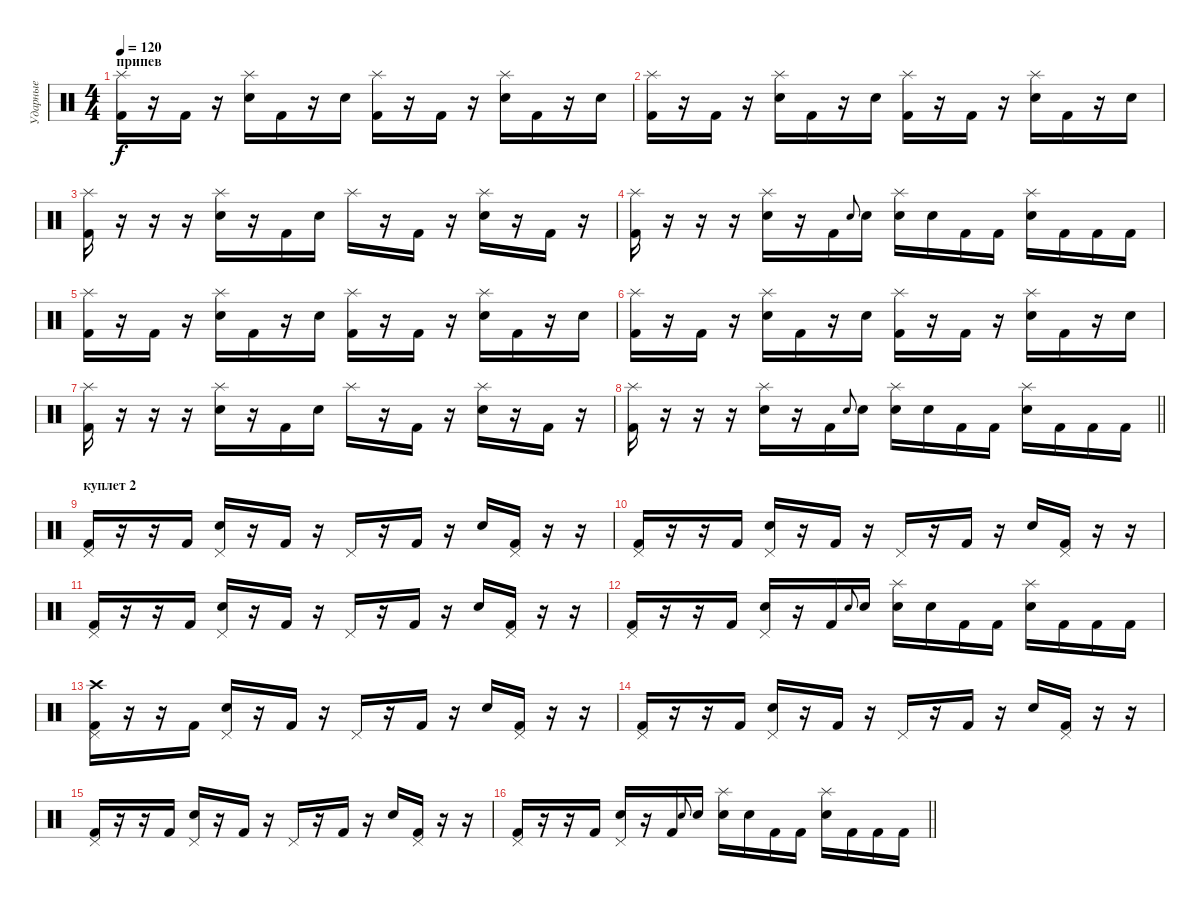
\track ("Ударные" "Ударные") {instrument percussion}
\staff {score}
\articulation defaults
\ts (4 4)
\section ("" "припев")
\tempo 120
\clef neutral
\ks c
("Splash (hit)" "Kick (hit) 2").16{dy f} r.16 "Kick (hit) 2".16 r.16 ("Splash (hit)" "Electric Snare (hit)").16 "Kick (hit) 2".16 r.16 "Electric Snare (hit)".16 ("Splash (hit)" "Kick (hit) 2").16 r.16 "Kick (hit) 2".16 r.16 ("Splash (hit)" "Electric Snare (hit)").16 "Kick (hit) 2".16 r.16 "Electric Snare (hit)".16 |
("Splash (hit)" "Kick (hit) 2").16 r.16 "Kick (hit) 2".16 r.16 ("Splash (hit)" "Electric Snare (hit)").16 "Kick (hit) 2".16 r.16 "Electric Snare (hit)".16 ("Splash (hit)" "Kick (hit) 2").16 r.16 "Kick (hit) 2".16 r.16 ("Splash (hit)" "Electric Snare (hit)").16 "Kick (hit) 2".16 r.16 "Electric Snare (hit)".16 |
("Splash (hit)" "Kick (hit) 2").16 r.16 r.16 r.16 ("Splash (hit)" "Electric Snare (hit)").16 r.16 "Kick (hit) 2".16 "Electric Snare (hit)".16 "Splash (hit)".16 r.16 "Kick (hit) 2".16 r.16 ("Splash (hit)" "Electric Snare (hit)").16 r.16 "Kick (hit) 2".16 r.16 |
("Splash (hit)" "Kick (hit) 2").16 r.16 r.16 r.16 ("Splash (hit)" "Electric Snare (hit)").16 r.16 "Kick (hit) 2".16 "Electric Snare (hit)".8{gr onbeat} "Electric Snare (hit)".16 ("Splash (hit)" "Electric Snare (hit)").16 "Electric Snare (hit)".16 "Kick (hit) 2".16 "Kick (hit) 2".16 ("Splash (hit)" "Electric Snare (hit)").16 "Kick (hit) 2".16 "Kick (hit) 2".16 "Kick (hit) 2".16 |
("Splash (hit)" "Kick (hit) 2").16 r.16 "Kick (hit) 2".16 r.16 ("Splash (hit)" "Electric Snare (hit)").16 "Kick (hit) 2".16 r.16 "Electric Snare (hit)".16 ("Splash (hit)" "Kick (hit) 2").16 r.16 "Kick (hit) 2".16 r.16 ("Splash (hit)" "Electric Snare (hit)").16 "Kick (hit) 2".16 r.16 "Electric Snare (hit)".16 |
("Splash (hit)" "Kick (hit) 2").16 r.16 "Kick (hit) 2".16 r.16 ("Splash (hit)" "Electric Snare (hit)").16 "Kick (hit) 2".16 r.16 "Electric Snare (hit)".16 ("Splash (hit)" "Kick (hit) 2").16 r.16 "Kick (hit) 2".16 r.16 ("Splash (hit)" "Electric Snare (hit)").16 "Kick (hit) 2".16 r.16 "Electric Snare (hit)".16 |
("Splash (hit)" "Kick (hit) 2").16 r.16 r.16 r.16 ("Splash (hit)" "Electric Snare (hit)").16 r.16 "Kick (hit) 2".16 "Electric Snare (hit)".16 "Splash (hit)".16 r.16 "Kick (hit) 2".16 r.16 ("Splash (hit)" "Electric Snare (hit)").16 r.16 "Kick (hit) 2".16 r.16 |
\barLineRight lightlight
("Splash (hit)" "Kick (hit) 2").16 r.16 r.16 r.16 ("Splash (hit)" "Electric Snare (hit)").16 r.16 "Kick (hit) 2".16 "Electric Snare (hit)".8{gr onbeat} "Electric Snare (hit)".16 ("Splash (hit)" "Electric Snare (hit)").16 "Electric Snare (hit)".16 "Kick (hit) 2".16 "Kick (hit) 2".16 ("Splash (hit)" "Electric Snare (hit)").16 "Kick (hit) 2".16 "Kick (hit) 2".16 "Kick (hit) 2".16 |
\section ("" "куплет 2")
("Pedal Hi-Hat (hit)" "Kick (hit) 2").16 r.16 r.16 "Kick (hit) 2".16 ("Pedal Hi-Hat (hit)" "Electric Snare (hit)").16 r.16 "Kick (hit) 2".16 r.16 "Pedal Hi-Hat (hit)".16 r.16 "Kick (hit) 2".16 r.16 "Electric Snare (hit)".16 ("Pedal Hi-Hat (hit)" "Kick (hit) 2").16 r.16 r.16 |
("Pedal Hi-Hat (hit)" "Kick (hit) 2").16 r.16 r.16 "Kick (hit) 2".16 ("Pedal Hi-Hat (hit)" "Electric Snare (hit)").16 r.16 "Kick (hit) 2".16 r.16 "Pedal Hi-Hat (hit)".16 r.16 "Kick (hit) 2".16 r.16 "Electric Snare (hit)".16 ("Pedal Hi-Hat (hit)" "Kick (hit) 2").16 r.16 r.16 |
("Pedal Hi-Hat (hit)" "Kick (hit) 2").16 r.16 r.16 "Kick (hit) 2".16 ("Pedal Hi-Hat (hit)" "Electric Snare (hit)").16 r.16 "Kick (hit) 2".16 r.16 "Pedal Hi-Hat (hit)".16 r.16 "Kick (hit) 2".16 r.16 "Electric Snare (hit)".16 ("Pedal Hi-Hat (hit)" "Kick (hit) 2").16 r.16 r.16 |
("Pedal Hi-Hat (hit)" "Kick (hit) 2").16 r.16 r.16 "Kick (hit) 2".16 ("Pedal Hi-Hat (hit)" "Electric Snare (hit)").16 r.16 "Kick (hit) 2".16 "Electric Snare (hit)".8{gr onbeat} "Electric Snare (hit)".16 ("Splash (hit)" "Electric Snare (hit)").16 "Electric Snare (hit)".16 "Kick (hit) 2".16 "Kick (hit) 2".16 ("Splash (hit)" "Electric Snare (hit)").16 "Kick (hit) 2".16 "Kick (hit) 2".16 "Kick (hit) 2".16 |
("Crash high (hit)" "Pedal Hi-Hat (hit)" "Kick (hit) 2").16 r.16 r.16 "Kick (hit) 2".16 ("Pedal Hi-Hat (hit)" "Electric Snare (hit)").16 r.16 "Kick (hit) 2".16 r.16 "Pedal Hi-Hat (hit)".16 r.16 "Kick (hit) 2".16 r.16 "Electric Snare (hit)".16 ("Pedal Hi-Hat (hit)" "Kick (hit) 2").16 r.16 r.16 |
("Pedal Hi-Hat (hit)" "Kick (hit) 2").16 r.16 r.16 "Kick (hit) 2".16 ("Pedal Hi-Hat (hit)" "Electric Snare (hit)").16 r.16 "Kick (hit) 2".16 r.16 "Pedal Hi-Hat (hit)".16 r.16 "Kick (hit) 2".16 r.16 "Electric Snare (hit)".16 ("Pedal Hi-Hat (hit)" "Kick (hit) 2").16 r.16 r.16 |
("Pedal Hi-Hat (hit)" "Kick (hit) 2").16 r.16 r.16 "Kick (hit) 2".16 ("Pedal Hi-Hat (hit)" "Electric Snare (hit)").16 r.16 "Kick (hit) 2".16 r.16 "Pedal Hi-Hat (hit)".16 r.16 "Kick (hit) 2".16 r.16 "Electric Snare (hit)".16 ("Pedal Hi-Hat (hit)" "Kick (hit) 2").16 r.16 r.16 |
\barLineRight lightlight
("Pedal Hi-Hat (hit)" "Kick (hit) 2").16 r.16 r.16 "Kick (hit) 2".16 ("Pedal Hi-Hat (hit)" "Electric Snare (hit)").16 r.16 "Kick (hit) 2".16 "Electric Snare (hit)".8{gr onbeat} "Electric Snare (hit)".16 ("Splash (hit)" "Electric Snare (hit)").16 "Electric Snare (hit)".16 "Kick (hit) 2".16 "Kick (hit) 2".16 ("Splash (hit)" "Electric Snare (hit)").16 "Kick (hit) 2".16 "Kick (hit) 2".16 "Kick (hit) 2".16
